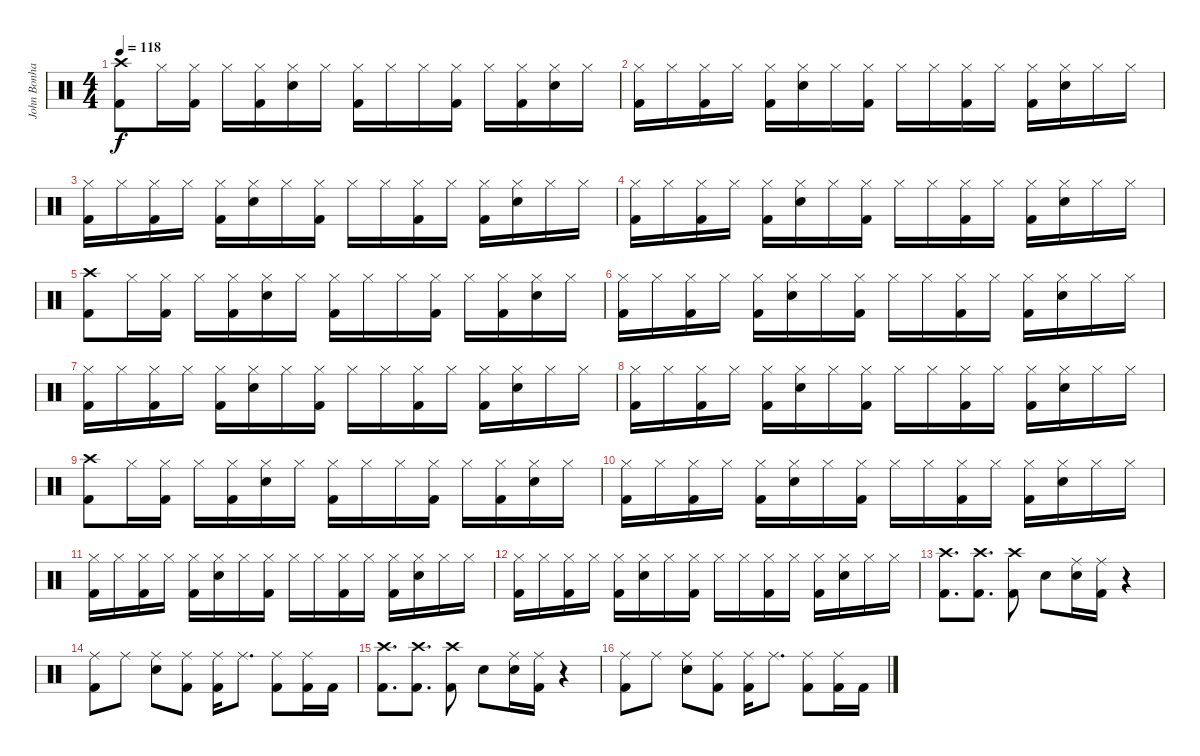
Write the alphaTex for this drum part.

\track ("John Bonham (Bateria)" "John Bonha") {instrument percussion}
\staff {score}
\articulation defaults
\ts (4 4)
\tempo 118
\clef neutral
\ks c
("Crash high (hit)" "Kick (hit) 2").8{dy f} "Hi-Hat (closed)".16 ("Kick (hit) 2" "Hi-Hat (closed)").16 "Hi-Hat (closed)".16 ("Kick (hit) 2" "Hi-Hat (closed)").16 ("Snare (hit) 2" "Hi-Hat (closed)").16 "Hi-Hat (closed)".16 ("Kick (hit) 2" "Hi-Hat (closed)").16 "Hi-Hat (closed)".16 "Hi-Hat (closed)".16 ("Kick (hit) 2" "Hi-Hat (closed)").16 "Hi-Hat (closed)".16 ("Kick (hit) 2" "Hi-Hat (closed)").16 ("Snare (hit) 2" "Hi-Hat (closed)").16 "Hi-Hat (closed)".16 |
("Kick (hit) 2" "Hi-Hat (closed)").16 "Hi-Hat (closed)".16 ("Kick (hit) 2" "Hi-Hat (closed)").16 "Hi-Hat (closed)".16 ("Kick (hit) 2" "Hi-Hat (closed)").16 ("Snare (hit) 2" "Hi-Hat (closed)").16 "Hi-Hat (closed)".16 ("Kick (hit) 2" "Hi-Hat (closed)").16 "Hi-Hat (closed)".16 "Hi-Hat (closed)".16 ("Kick (hit) 2" "Hi-Hat (closed)").16 "Hi-Hat (closed)".16 ("Kick (hit) 2" "Hi-Hat (closed)").16 ("Snare (hit) 2" "Hi-Hat (closed)").16 "Hi-Hat (closed)".16 "Hi-Hat (closed)".16 |
("Kick (hit) 2" "Hi-Hat (closed)").16 "Hi-Hat (closed)".16 ("Kick (hit) 2" "Hi-Hat (closed)").16 "Hi-Hat (closed)".16 ("Kick (hit) 2" "Hi-Hat (closed)").16 ("Snare (hit) 2" "Hi-Hat (closed)").16 "Hi-Hat (closed)".16 ("Kick (hit) 2" "Hi-Hat (closed)").16 "Hi-Hat (closed)".16 "Hi-Hat (closed)".16 ("Kick (hit) 2" "Hi-Hat (closed)").16 "Hi-Hat (closed)".16 ("Kick (hit) 2" "Hi-Hat (closed)").16 ("Snare (hit) 2" "Hi-Hat (closed)").16 "Hi-Hat (closed)".16 "Hi-Hat (closed)".16 |
("Kick (hit) 2" "Hi-Hat (closed)").16 "Hi-Hat (closed)".16 ("Kick (hit) 2" "Hi-Hat (closed)").16 "Hi-Hat (closed)".16 ("Kick (hit) 2" "Hi-Hat (closed)").16 ("Snare (hit) 2" "Hi-Hat (closed)").16 "Hi-Hat (closed)".16 ("Kick (hit) 2" "Hi-Hat (closed)").16 "Hi-Hat (closed)".16 "Hi-Hat (closed)".16 ("Kick (hit) 2" "Hi-Hat (closed)").16 "Hi-Hat (closed)".16 ("Kick (hit) 2" "Hi-Hat (closed)").16 ("Snare (hit) 2" "Hi-Hat (closed)").16 "Hi-Hat (closed)".16 "Hi-Hat (closed)".16 |
("Crash high (hit)" "Kick (hit) 2").8 "Hi-Hat (closed)".16 ("Kick (hit) 2" "Hi-Hat (closed)").16 "Hi-Hat (closed)".16 ("Kick (hit) 2" "Hi-Hat (closed)").16 ("Snare (hit) 2" "Hi-Hat (closed)").16 "Hi-Hat (closed)".16 ("Kick (hit) 2" "Hi-Hat (closed)").16 "Hi-Hat (closed)".16 "Hi-Hat (closed)".16 ("Kick (hit) 2" "Hi-Hat (closed)").16 "Hi-Hat (closed)".16 ("Kick (hit) 2" "Hi-Hat (closed)").16 ("Snare (hit) 2" "Hi-Hat (closed)").16 "Hi-Hat (closed)".16 |
("Kick (hit) 2" "Hi-Hat (closed)").16 "Hi-Hat (closed)".16 ("Kick (hit) 2" "Hi-Hat (closed)").16 "Hi-Hat (closed)".16 ("Kick (hit) 2" "Hi-Hat (closed)").16 ("Snare (hit) 2" "Hi-Hat (closed)").16 "Hi-Hat (closed)".16 ("Kick (hit) 2" "Hi-Hat (closed)").16 "Hi-Hat (closed)".16 "Hi-Hat (closed)".16 ("Kick (hit) 2" "Hi-Hat (closed)").16 "Hi-Hat (closed)".16 ("Kick (hit) 2" "Hi-Hat (closed)").16 ("Snare (hit) 2" "Hi-Hat (closed)").16 "Hi-Hat (closed)".16 "Hi-Hat (closed)".16 |
("Kick (hit) 2" "Hi-Hat (closed)").16 "Hi-Hat (closed)".16 ("Kick (hit) 2" "Hi-Hat (closed)").16 "Hi-Hat (closed)".16 ("Kick (hit) 2" "Hi-Hat (closed)").16 ("Snare (hit) 2" "Hi-Hat (closed)").16 "Hi-Hat (closed)".16 ("Kick (hit) 2" "Hi-Hat (closed)").16 "Hi-Hat (closed)".16 "Hi-Hat (closed)".16 ("Kick (hit) 2" "Hi-Hat (closed)").16 "Hi-Hat (closed)".16 ("Kick (hit) 2" "Hi-Hat (closed)").16 ("Snare (hit) 2" "Hi-Hat (closed)").16 "Hi-Hat (closed)".16 "Hi-Hat (closed)".16 |
("Kick (hit) 2" "Hi-Hat (closed)").16 "Hi-Hat (closed)".16 ("Kick (hit) 2" "Hi-Hat (closed)").16 "Hi-Hat (closed)".16 ("Kick (hit) 2" "Hi-Hat (closed)").16 ("Snare (hit) 2" "Hi-Hat (closed)").16 "Hi-Hat (closed)".16 ("Kick (hit) 2" "Hi-Hat (closed)").16 "Hi-Hat (closed)".16 "Hi-Hat (closed)".16 ("Kick (hit) 2" "Hi-Hat (closed)").16 "Hi-Hat (closed)".16 ("Kick (hit) 2" "Hi-Hat (closed)").16 ("Snare (hit) 2" "Hi-Hat (closed)").16 "Hi-Hat (closed)".16 "Hi-Hat (closed)".16 |
("Crash high (hit)" "Kick (hit) 2").8 "Hi-Hat (closed)".16 ("Kick (hit) 2" "Hi-Hat (closed)").16 "Hi-Hat (closed)".16 ("Kick (hit) 2" "Hi-Hat (closed)").16 ("Snare (hit) 2" "Hi-Hat (closed)").16 "Hi-Hat (closed)".16 ("Kick (hit) 2" "Hi-Hat (closed)").16 "Hi-Hat (closed)".16 "Hi-Hat (closed)".16 ("Kick (hit) 2" "Hi-Hat (closed)").16 "Hi-Hat (closed)".16 ("Kick (hit) 2" "Hi-Hat (closed)").16 ("Snare (hit) 2" "Hi-Hat (closed)").16 "Hi-Hat (closed)".16 |
("Kick (hit) 2" "Hi-Hat (closed)").16 "Hi-Hat (closed)".16 ("Kick (hit) 2" "Hi-Hat (closed)").16 "Hi-Hat (closed)".16 ("Kick (hit) 2" "Hi-Hat (closed)").16 ("Snare (hit) 2" "Hi-Hat (closed)").16 "Hi-Hat (closed)".16 ("Kick (hit) 2" "Hi-Hat (closed)").16 "Hi-Hat (closed)".16 "Hi-Hat (closed)".16 ("Kick (hit) 2" "Hi-Hat (closed)").16 "Hi-Hat (closed)".16 ("Kick (hit) 2" "Hi-Hat (closed)").16 ("Snare (hit) 2" "Hi-Hat (closed)").16 "Hi-Hat (closed)".16 "Hi-Hat (closed)".16 |
("Kick (hit) 2" "Hi-Hat (closed)").16 "Hi-Hat (closed)".16 ("Kick (hit) 2" "Hi-Hat (closed)").16 "Hi-Hat (closed)".16 ("Kick (hit) 2" "Hi-Hat (closed)").16 ("Snare (hit) 2" "Hi-Hat (closed)").16 "Hi-Hat (closed)".16 ("Kick (hit) 2" "Hi-Hat (closed)").16 "Hi-Hat (closed)".16 "Hi-Hat (closed)".16 ("Kick (hit) 2" "Hi-Hat (closed)").16 "Hi-Hat (closed)".16 ("Kick (hit) 2" "Hi-Hat (closed)").16 ("Snare (hit) 2" "Hi-Hat (closed)").16 "Hi-Hat (closed)".16 "Hi-Hat (closed)".16 |
("Kick (hit) 2" "Hi-Hat (closed)").16 "Hi-Hat (closed)".16 ("Kick (hit) 2" "Hi-Hat (closed)").16 "Hi-Hat (closed)".16 ("Kick (hit) 2" "Hi-Hat (closed)").16 ("Snare (hit) 2" "Hi-Hat (closed)").16 "Hi-Hat (closed)".16 ("Kick (hit) 2" "Hi-Hat (closed)").16 "Hi-Hat (closed)".16 "Hi-Hat (closed)".16 ("Kick (hit) 2" "Hi-Hat (closed)").16 "Hi-Hat (closed)".16 ("Kick (hit) 2" "Hi-Hat (closed)").16 ("Snare (hit) 2" "Hi-Hat (closed)").16 "Hi-Hat (closed)".16 "Hi-Hat (closed)".16 |
("Crash high (hit)" "Kick (hit) 2").8{d} ("Kick (hit) 2" "Crash high (hit)").8{d} ("Kick (hit) 2" "Crash high (hit)").8 "Snare (hit) 2".8 ("Snare (hit) 2" "Ride (middle)").16 ("Kick (hit) 2" "Ride (middle)").16 r.4 |
("Ride (middle)" "Kick (hit) 2").8 "Ride (middle)".8 ("Snare (hit) 2" "Ride (middle)").8 ("Kick (hit) 2" "Ride (middle)").8 ("Kick (hit) 2" "Ride (middle)").16 "Ride (middle)".8{d} ("Kick (hit) 2" "Ride (middle)").8 ("Kick (hit) 2" "Ride (middle)").16 "Kick (hit) 2".16 |
("Crash high (hit)" "Kick (hit) 2").8{d} ("Kick (hit) 2" "Crash high (hit)").8{d} ("Kick (hit) 2" "Crash high (hit)").8 "Snare (hit) 2".8 ("Snare (hit) 2" "Ride (middle)").16 ("Kick (hit) 2" "Ride (middle)").16 r.4 |
("Ride (middle)" "Kick (hit) 2").8 "Ride (middle)".8 ("Snare (hit) 2" "Ride (middle)").8 ("Kick (hit) 2" "Ride (middle)").8 ("Kick (hit) 2" "Ride (middle)").16 "Ride (middle)".8{d} ("Kick (hit) 2" "Ride (middle)").8 ("Kick (hit) 2" "Ride (middle)").16 "Kick (hit) 2".16
